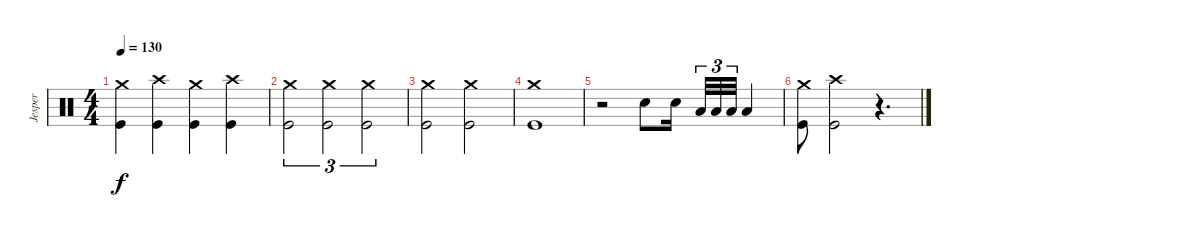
\track ("Jesper" "Jesper") {instrument percussion}
\staff {score}
\articulation defaults
\ts (4 4)
\tempo 130
\clef neutral
\ks c
("Crash medium (hit)" "Kick (hit)").4{dy f} ("Crash high (hit)" "Kick (hit)").4 ("Crash medium (hit)" "Kick (hit)").4 ("Crash high (hit)" "Kick (hit)").4 |
("Crash medium (hit)" "Kick (hit)").2{tu (3 2)} ("Crash medium (hit)" "Kick (hit)").2{tu (3 2)} ("Crash medium (hit)" "Kick (hit)").2{tu (3 2)} |
("Crash medium (hit)" "Kick (hit)").2 ("Crash medium (hit)" "Kick (hit)").2 |
("Crash medium (hit)" "Kick (hit)").1 |
r.2 "Electric Snare (hit)".8 "Electric Snare (hit)".16 "Low Tom (hit)".32{tu (3 2)} "Low Tom (hit)".32{tu (3 2)} "Low Tom (hit)".32{tu (3 2)} "Low Tom (hit)".4 |
("Crash medium (hit)" "Kick (hit)").8 ("Crash high (hit)" "Kick (hit)").2 r.4{d}
